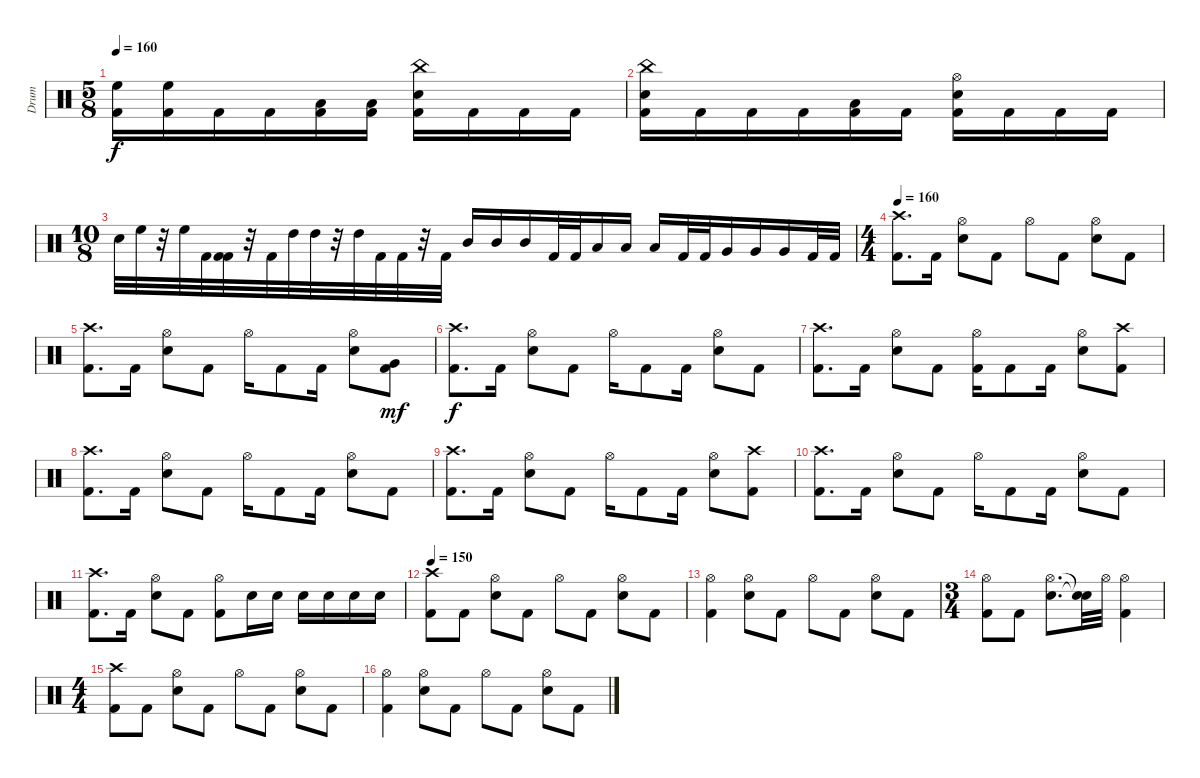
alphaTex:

\track ("Drum" "Drum") {instrument percussion}
\staff {score}
\articulation defaults
\ts (5 8)
\tempo 160
\clef neutral
\ks c
("Kick (hit) 2" "High Floor Tom (hit)").16{dy f} ("Kick (hit) 2" "High Floor Tom (hit)").16 "Kick (hit) 2".16 "Kick (hit) 2".16 ("Kick (hit) 2" "Low Tom (hit)").16 ("Kick (hit) 2" "Low Tom (hit)").16 ("Kick (hit) 2" "Electric Snare (hit)" "China (hit)").16 "Kick (hit) 2".16 "Kick (hit) 2".16 "Kick (hit) 2".16 |
("Kick (hit) 2" "Electric Snare (hit)" "China (hit)").16 "Kick (hit) 2".16 "Kick (hit) 2".16 "Kick (hit) 2".16 ("Kick (hit) 2" "Low Tom (hit)").16 "Kick (hit) 2".16 ("Kick (hit) 2" "Electric Snare (hit)" "Hi-Hat (open)").16 "Kick (hit) 2".16 "Kick (hit) 2".16 "Kick (hit) 2".16 |
\ts (10 8)
"Electric Snare (hit)".32 "High Floor Tom (hit)".32 r.32 "High Floor Tom (hit)".32 "Kick (hit) 2".32 ("Kick (hit) 2" "Kick (hit) 2").32 r.32 "Kick (hit) 2".32 "High Tom (hit)".32 "High Tom (hit)".32 r.32 "High Tom (hit)".32 "Kick (hit) 2".32 "Kick (hit) 2".32 r.32 "Kick (hit) 2".32 "Mid Tom (hit)".16 "Mid Tom (hit)".16 "Mid Tom (hit)".16 "Kick (hit) 2".32 "Kick (hit) 2".32 "Low Tom (hit)".16 "Low Tom (hit)".16 "Low Tom (hit)".16 "Kick (hit) 2".32 "Kick (hit) 2".32 "Very Low Tom (hit)".16 "Very Low Tom (hit)".16 "Very Low Tom (hit)".16 "Kick (hit) 2".32 "Kick (hit) 2".32 |
\ts (4 4)
\tempo 160
("Crash high (hit)" "Kick (hit) 2").8{d} "Kick (hit) 2".16 ("Electric Snare (hit)" "Hi-Hat (open)").8 "Kick (hit) 2".8 "Hi-Hat (open)".8 "Kick (hit) 2".8 ("Electric Snare (hit)" "Hi-Hat (open)").8 "Kick (hit) 2".8 |
("Kick (hit) 2" "Crash high (hit)").8{d} "Kick (hit) 2".16 ("Electric Snare (hit)" "Hi-Hat (open)").8 "Kick (hit) 2".8 "Hi-Hat (open)".16 "Kick (hit) 2".8 "Kick (hit) 2".16 ("Electric Snare (hit)" "Hi-Hat (open)").8 ("Kick (hit) 2" "Very Low Tom (hit)").8{dy mf} |
("Crash high (hit)" "Kick (hit) 2").8{d dy f} "Kick (hit) 2".16 ("Electric Snare (hit)" "Hi-Hat (open)").8 "Kick (hit) 2".8 "Hi-Hat (open)".16 "Kick (hit) 2".8 "Kick (hit) 2".16 ("Electric Snare (hit)" "Hi-Hat (open)").8 "Kick (hit) 2".8 |
("Kick (hit) 2" "Crash high (hit)").8{d} "Kick (hit) 2".16 ("Electric Snare (hit)" "Hi-Hat (open)").8 "Kick (hit) 2".8 ("Hi-Hat (open)" "Kick (hit) 2").16 "Kick (hit) 2".8 "Kick (hit) 2".16 ("Electric Snare (hit)" "Hi-Hat (open)").8 ("Kick (hit) 2" "Crash high (hit)").8 |
("Kick (hit) 2" "Crash high (hit)").8{d} "Kick (hit) 2".16 ("Electric Snare (hit)" "Hi-Hat (open)").8 "Kick (hit) 2".8 "Hi-Hat (open)".16 "Kick (hit) 2".8 "Kick (hit) 2".16 ("Electric Snare (hit)" "Hi-Hat (open)").8 "Kick (hit) 2".8 |
("Kick (hit) 2" "Crash high (hit)").8{d} "Kick (hit) 2".16 ("Electric Snare (hit)" "Hi-Hat (open)").8 "Kick (hit) 2".8 "Hi-Hat (open)".16 "Kick (hit) 2".8 "Kick (hit) 2".16 ("Electric Snare (hit)" "Hi-Hat (open)").8 ("Kick (hit) 2" "Crash high (hit)").8 |
("Crash high (hit)" "Kick (hit) 2").8{d} "Kick (hit) 2".16 ("Electric Snare (hit)" "Hi-Hat (open)").8 "Kick (hit) 2".8 "Hi-Hat (open)".16 "Kick (hit) 2".8 "Kick (hit) 2".16 ("Electric Snare (hit)" "Hi-Hat (open)").8 "Kick (hit) 2".8 |
("Kick (hit) 2" "Crash high (hit)").8{d} "Kick (hit) 2".16 ("Electric Snare (hit)" "Hi-Hat (open)").8 "Kick (hit) 2".8 ("Kick (hit) 2" "Hi-Hat (open)").8 "Electric Snare (hit)".16 "Electric Snare (hit)".16 "Electric Snare (hit)".16 "Electric Snare (hit)".16 "Electric Snare (hit)".16 "Electric Snare (hit)".16 |
\tempo 150
("Kick (hit) 2" "Crash high (hit)").8 "Kick (hit) 2".8 ("Electric Snare (hit)" "Hi-Hat (open)").8 "Kick (hit) 2".8 "Hi-Hat (open)".8 "Kick (hit) 2".8 ("Hi-Hat (open)" "Electric Snare (hit)").8 "Kick (hit) 2".8 |
("Hi-Hat (open)" "Kick (hit) 2").4 ("Electric Snare (hit)" "Hi-Hat (open)").8 "Kick (hit) 2".8 "Hi-Hat (open)".8 "Kick (hit) 2".8 ("Electric Snare (hit)" "Hi-Hat (open)").8 "Kick (hit) 2".8 |
\ts (3 4)
("Kick (hit) 2" "Hi-Hat (open)").8 "Kick (hit) 2".8 ("Electric Snare (hit)" "Hi-Hat (open)").8{d} ("Snare (hit)"{t} "Snare (hit)"{t}).32 "Hi-Hat (open)".32 ("Kick (hit) 2" "Hi-Hat (open)").4 |
\ts (4 4)
("Crash high (hit)" "Kick (hit) 2").8 "Kick (hit) 2".8 ("Electric Snare (hit)" "Hi-Hat (open)").8 "Kick (hit) 2".8 "Hi-Hat (open)".8 "Kick (hit) 2".8 ("Hi-Hat (open)" "Electric Snare (hit)").8 "Kick (hit) 2".8 |
("Hi-Hat (open)" "Kick (hit) 2").4 ("Electric Snare (hit)" "Hi-Hat (open)").8 "Kick (hit) 2".8 "Hi-Hat (open)".8 "Kick (hit) 2".8 ("Electric Snare (hit)" "Hi-Hat (open)").8 "Kick (hit) 2".8
